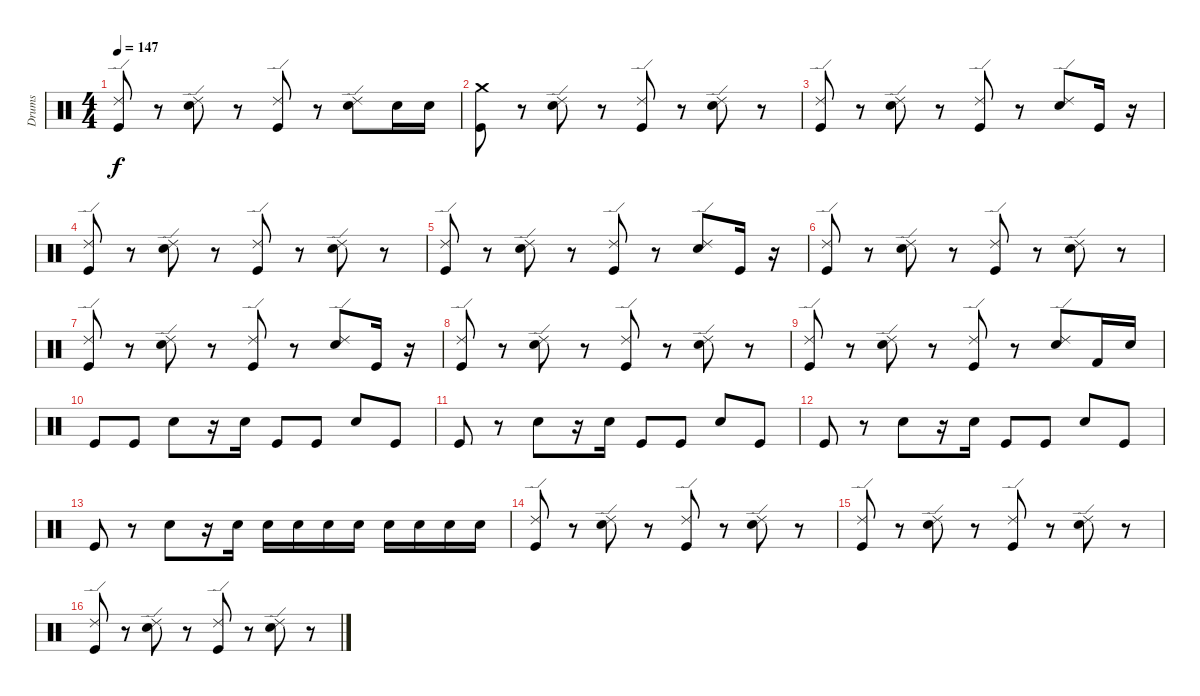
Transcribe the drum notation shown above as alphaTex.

\track ("Drums" "Drums") {instrument percussion}
\staff {score}
\articulation defaults
\ts (4 4)
\tempo 147
\clef neutral
\ks c
("Ride (edge) 2" "Kick (hit)").8{dy f} r.8 ("Ride (edge) 2" "Snare (hit) 2").8 r.8 ("Ride (edge) 2" "Kick (hit)").8 r.8 ("Snare (hit) 2" "Ride (edge) 2").8 "Snare (hit) 2".16 "Snare (hit) 2".16 |
("Crash medium (hit)" "Kick (hit)").8 r.8 ("Ride (edge) 2" "Snare (hit) 2").8 r.8 ("Ride (edge) 2" "Kick (hit)").8 r.8 ("Ride (edge) 2" "Snare (hit) 2").8 r.8 |
("Ride (edge) 2" "Kick (hit)").8 r.8 ("Ride (edge) 2" "Snare (hit) 2").8 r.8 ("Ride (edge) 2" "Kick (hit)").8 r.8 ("Ride (edge) 2" "Snare (hit) 2").8 "Kick (hit)".16 r.16 |
("Ride (edge) 2" "Kick (hit)").8 r.8 ("Ride (edge) 2" "Snare (hit) 2").8 r.8 ("Ride (edge) 2" "Kick (hit)").8 r.8 ("Ride (edge) 2" "Snare (hit) 2").8 r.8 |
("Ride (edge) 2" "Kick (hit)").8 r.8 ("Ride (edge) 2" "Snare (hit) 2").8 r.8 ("Ride (edge) 2" "Kick (hit)").8 r.8 ("Ride (edge) 2" "Snare (hit) 2").8 "Kick (hit)".16 r.16 |
("Ride (edge) 2" "Kick (hit)").8 r.8 ("Ride (edge) 2" "Snare (hit) 2").8 r.8 ("Ride (edge) 2" "Kick (hit)").8 r.8 ("Ride (edge) 2" "Snare (hit) 2").8 r.8 |
("Ride (edge) 2" "Kick (hit)").8 r.8 ("Ride (edge) 2" "Snare (hit) 2").8 r.8 ("Ride (edge) 2" "Kick (hit)").8 r.8 ("Ride (edge) 2" "Snare (hit) 2").8 "Kick (hit)".16 r.16 |
("Ride (edge) 2" "Kick (hit)").8 r.8 ("Ride (edge) 2" "Snare (hit) 2").8 r.8 ("Ride (edge) 2" "Kick (hit)").8 r.8 ("Ride (edge) 2" "Snare (hit) 2").8 r.8 |
("Ride (edge) 2" "Kick (hit)").8 r.8 ("Ride (edge) 2" "Snare (hit) 2").8 r.8 ("Ride (edge) 2" "Kick (hit)").8 r.8 ("Ride (edge) 2" "Snare (hit) 2").8 "Kick (hit) 2".16 "Snare (hit) 2".16 |
"Kick (hit)".8 "Kick (hit)".8 "Snare (hit) 2".8 r.16 "Snare (hit) 2".16 "Kick (hit)".8 "Kick (hit)".8 "Snare (hit) 2".8 "Kick (hit)".8 |
"Kick (hit)".8 r.8 "Snare (hit) 2".8 r.16 "Snare (hit) 2".16 "Kick (hit)".8 "Kick (hit)".8 "Snare (hit) 2".8 "Kick (hit)".8 |
"Kick (hit)".8 r.8 "Snare (hit) 2".8 r.16 "Snare (hit) 2".16 "Kick (hit)".8 "Kick (hit)".8 "Snare (hit) 2".8 "Kick (hit)".8 |
"Kick (hit)".8 r.8 "Snare (hit) 2".8 r.16 "Snare (hit) 2".16 "Snare (hit) 2".16 "Snare (hit) 2".16 "Snare (hit) 2".16 "Snare (hit) 2".16 "Snare (hit) 2".16 "Snare (hit) 2".16 "Snare (hit) 2".16 "Snare (hit) 2".16 |
("Ride (edge) 2" "Kick (hit)").8 r.8 ("Ride (edge) 2" "Snare (hit) 2").8 r.8 ("Ride (edge) 2" "Kick (hit)").8 r.8 ("Ride (edge) 2" "Snare (hit) 2").8 r.8 |
("Ride (edge) 2" "Kick (hit)").8 r.8 ("Ride (edge) 2" "Snare (hit) 2").8 r.8 ("Ride (edge) 2" "Kick (hit)").8 r.8 ("Ride (edge) 2" "Snare (hit) 2").8 r.8 |
("Ride (edge) 2" "Kick (hit)").8 r.8 ("Ride (edge) 2" "Snare (hit) 2").8 r.8 ("Ride (edge) 2" "Kick (hit)").8 r.8 ("Ride (edge) 2" "Snare (hit) 2").8 r.8
